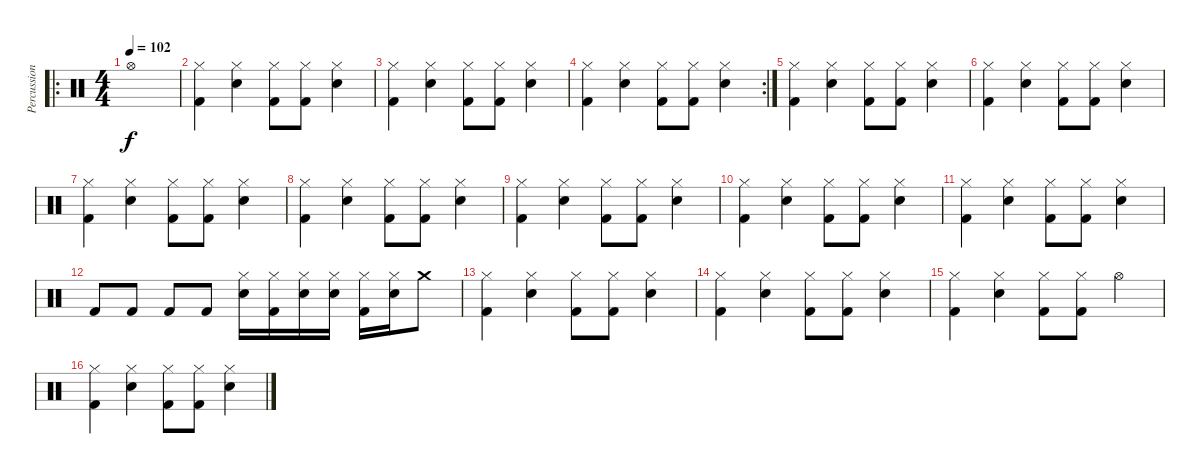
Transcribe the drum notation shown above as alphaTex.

\track ("Percussion" "Percussion") {instrument percussion}
\staff {score}
\articulation defaults
\ro
\ts (4 4)
\tempo 102
\clef neutral
\ks c "Hi-Hat (open)".1{dy f}
|
("Hi-Hat (closed)" "Kick (hit) 2").4 ("Hi-Hat (closed)" "Snare (hit) 2").4 ("Hi-Hat (closed)" "Kick (hit) 2").8 ("Hi-Hat (closed)" "Kick (hit) 2").8 ("Hi-Hat (closed)" "Snare (hit) 2").4 |
("Hi-Hat (closed)" "Kick (hit) 2").4 ("Hi-Hat (closed)" "Snare (hit) 2").4 ("Hi-Hat (closed)" "Kick (hit) 2").8 ("Hi-Hat (closed)" "Kick (hit) 2").8 ("Hi-Hat (closed)" "Snare (hit) 2").4 |
\rc 2
("Hi-Hat (closed)" "Kick (hit) 2").4 ("Hi-Hat (closed)" "Snare (hit) 2").4 ("Hi-Hat (closed)" "Kick (hit) 2").8 ("Hi-Hat (closed)" "Kick (hit) 2").8 ("Hi-Hat (closed)" "Snare (hit) 2").4 |
("Hi-Hat (closed)" "Kick (hit) 2").4 ("Hi-Hat (closed)" "Snare (hit) 2").4 ("Hi-Hat (closed)" "Kick (hit) 2").8 ("Hi-Hat (closed)" "Kick (hit) 2").8 ("Hi-Hat (closed)" "Snare (hit) 2").4 |
("Hi-Hat (closed)" "Kick (hit) 2").4 ("Hi-Hat (closed)" "Snare (hit) 2").4 ("Hi-Hat (closed)" "Kick (hit) 2").8 ("Hi-Hat (closed)" "Kick (hit) 2").8 ("Hi-Hat (closed)" "Snare (hit) 2").4 |
("Hi-Hat (closed)" "Kick (hit) 2").4 ("Hi-Hat (closed)" "Snare (hit) 2").4 ("Hi-Hat (closed)" "Kick (hit) 2").8 ("Hi-Hat (closed)" "Kick (hit) 2").8 ("Hi-Hat (closed)" "Snare (hit) 2").4 |
("Hi-Hat (closed)" "Kick (hit) 2").4 ("Hi-Hat (closed)" "Snare (hit) 2").4 ("Hi-Hat (closed)" "Kick (hit) 2").8 ("Hi-Hat (closed)" "Kick (hit) 2").8 ("Hi-Hat (closed)" "Snare (hit) 2").4 |
("Hi-Hat (closed)" "Kick (hit) 2").4 ("Hi-Hat (closed)" "Snare (hit) 2").4 ("Hi-Hat (closed)" "Kick (hit) 2").8 ("Hi-Hat (closed)" "Kick (hit) 2").8 ("Hi-Hat (closed)" "Snare (hit) 2").4 |
("Hi-Hat (closed)" "Kick (hit) 2").4 ("Hi-Hat (closed)" "Snare (hit) 2").4 ("Hi-Hat (closed)" "Kick (hit) 2").8 ("Hi-Hat (closed)" "Kick (hit) 2").8 ("Hi-Hat (closed)" "Snare (hit) 2").4 |
("Hi-Hat (closed)" "Kick (hit) 2").4 ("Hi-Hat (closed)" "Snare (hit) 2").4 ("Hi-Hat (closed)" "Kick (hit) 2").8 ("Hi-Hat (closed)" "Kick (hit) 2").8 ("Hi-Hat (closed)" "Snare (hit) 2").4 |
"Kick (hit) 2".8 "Kick (hit) 2".8 "Kick (hit) 2".8 "Kick (hit) 2".8 ("Hi-Hat (closed)" "Snare (hit) 2").16 ("Hi-Hat (closed)" "Kick (hit) 2").16 ("Hi-Hat (closed)" "Snare (hit) 2").16 ("Hi-Hat (closed)" "Snare (hit) 2").16 ("Hi-Hat (closed)" "Kick (hit) 2").16 ("Hi-Hat (closed)" "Snare (hit) 2").16 "Crash medium (hit)".8 |
("Hi-Hat (closed)" "Kick (hit) 2").4 ("Hi-Hat (closed)" "Snare (hit) 2").4 ("Hi-Hat (closed)" "Kick (hit) 2").8 ("Hi-Hat (closed)" "Kick (hit) 2").8 ("Hi-Hat (closed)" "Snare (hit) 2").4 |
("Hi-Hat (closed)" "Kick (hit) 2").4 ("Hi-Hat (closed)" "Snare (hit) 2").4 ("Hi-Hat (closed)" "Kick (hit) 2").8 ("Hi-Hat (closed)" "Kick (hit) 2").8 ("Hi-Hat (closed)" "Snare (hit) 2").4 |
("Hi-Hat (closed)" "Kick (hit) 2").4 ("Hi-Hat (closed)" "Snare (hit) 2").4 ("Hi-Hat (closed)" "Kick (hit) 2").8 ("Hi-Hat (closed)" "Kick (hit) 2").8 "Hi-Hat (open)".4 |
("Hi-Hat (closed)" "Kick (hit) 2").4 ("Hi-Hat (closed)" "Snare (hit) 2").4 ("Hi-Hat (closed)" "Kick (hit) 2").8 ("Hi-Hat (closed)" "Kick (hit) 2").8 ("Hi-Hat (closed)" "Snare (hit) 2").4
